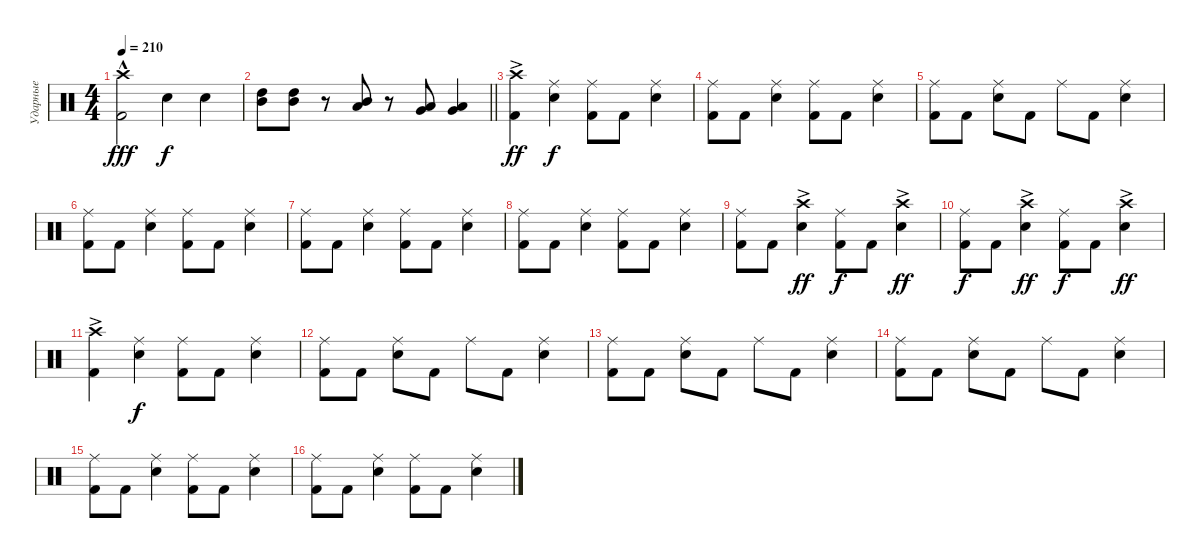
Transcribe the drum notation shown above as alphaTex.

\track ("Ударные" "Ударные") {instrument percussion}
\staff {score}
\articulation defaults
\ts (4 4)
\tempo 210
\clef neutral
\ks c
("Crash high (hit)"{hac} "Kick (hit) 2").2{dy fff} "Snare (hit) 2".4{dy f} "Snare (hit) 2".4 |
\barLineRight lightlight
("High Tom (hit)" "Mid Tom (hit)").8 ("High Tom (hit)" "Mid Tom (hit)").8 r.8 ("Mid Tom (hit)" "Low Tom (hit)").8 r.8 ("Low Tom (hit)" "Very Low Tom (hit)").8 ("Very Low Tom (hit)" "Low Floor Tom (hit)").4 |
\section ("" "")
("Crash high (hit)"{ac} "Kick (hit) 2").4{dy ff} ("Ride (middle)" "Snare (hit) 2").4{dy f} ("Ride (middle)" "Kick (hit) 2").8 "Kick (hit) 2".8 ("Ride (middle)" "Snare (hit) 2").4 |
("Ride (middle)" "Kick (hit) 2").8 "Kick (hit) 2".8 ("Ride (middle)" "Snare (hit) 2").4 ("Ride (middle)" "Kick (hit) 2").8 "Kick (hit) 2".8 ("Ride (middle)" "Snare (hit) 2").4 |
("Ride (middle)" "Kick (hit) 2").8 "Kick (hit) 2".8 ("Ride (middle)" "Snare (hit) 2").8 "Kick (hit) 2".8 "Ride (middle)".8 "Kick (hit) 2".8 ("Ride (middle)" "Snare (hit) 2").4 |
("Ride (middle)" "Kick (hit) 2").8 "Kick (hit) 2".8 ("Ride (middle)" "Snare (hit) 2").4 ("Ride (middle)" "Kick (hit) 2").8 "Kick (hit) 2".8 ("Ride (middle)" "Snare (hit) 2").4 |
("Ride (middle)" "Kick (hit) 2").8 "Kick (hit) 2".8 ("Ride (middle)" "Snare (hit) 2").4 ("Ride (middle)" "Kick (hit) 2").8 "Kick (hit) 2".8 ("Ride (middle)" "Snare (hit) 2").4 |
("Ride (middle)" "Kick (hit) 2").8 "Kick (hit) 2".8 ("Ride (middle)" "Snare (hit) 2").4 ("Ride (middle)" "Kick (hit) 2").8 "Kick (hit) 2".8 ("Ride (middle)" "Snare (hit) 2").4 |
("Ride (middle)" "Kick (hit) 2").8 "Kick (hit) 2".8 ("Crash high (hit)"{ac} "Snare (hit) 2").4{dy ff} ("Ride (middle)" "Kick (hit) 2").8{dy f} "Kick (hit) 2".8 ("Crash high (hit)"{ac} "Snare (hit) 2").4{dy ff} |
("Ride (middle)" "Kick (hit) 2").8{dy f} "Kick (hit) 2".8 ("Crash high (hit)"{ac} "Snare (hit) 2").4{dy ff} ("Ride (middle)" "Kick (hit) 2").8{dy f} "Kick (hit) 2".8 ("Crash high (hit)"{ac} "Snare (hit) 2").4{dy ff} |
("Crash high (hit)"{ac} "Kick (hit) 2").4 ("Ride (middle)" "Snare (hit) 2").4{dy f} ("Ride (middle)" "Kick (hit) 2").8 "Kick (hit) 2".8 ("Ride (middle)" "Snare (hit) 2").4 |
("Ride (middle)" "Kick (hit) 2").8 "Kick (hit) 2".8 ("Ride (middle)" "Snare (hit) 2").8 "Kick (hit) 2".8 "Ride (middle)".8 "Kick (hit) 2".8 ("Ride (middle)" "Snare (hit) 2").4 |
("Ride (middle)" "Kick (hit) 2").8 "Kick (hit) 2".8 ("Ride (middle)" "Snare (hit) 2").8 "Kick (hit) 2".8 "Ride (middle)".8 "Kick (hit) 2".8 ("Ride (middle)" "Snare (hit) 2").4 |
("Ride (middle)" "Kick (hit) 2").8 "Kick (hit) 2".8 ("Ride (middle)" "Snare (hit) 2").8 "Kick (hit) 2".8 "Ride (middle)".8 "Kick (hit) 2".8 ("Ride (middle)" "Snare (hit) 2").4 |
("Ride (middle)" "Kick (hit) 2").8 "Kick (hit) 2".8 ("Ride (middle)" "Snare (hit) 2").4 ("Ride (middle)" "Kick (hit) 2").8 "Kick (hit) 2".8 ("Ride (middle)" "Snare (hit) 2").4 |
("Ride (middle)" "Kick (hit) 2").8 "Kick (hit) 2".8 ("Ride (middle)" "Snare (hit) 2").4 ("Ride (middle)" "Kick (hit) 2").8 "Kick (hit) 2".8 ("Ride (middle)" "Snare (hit) 2").4
